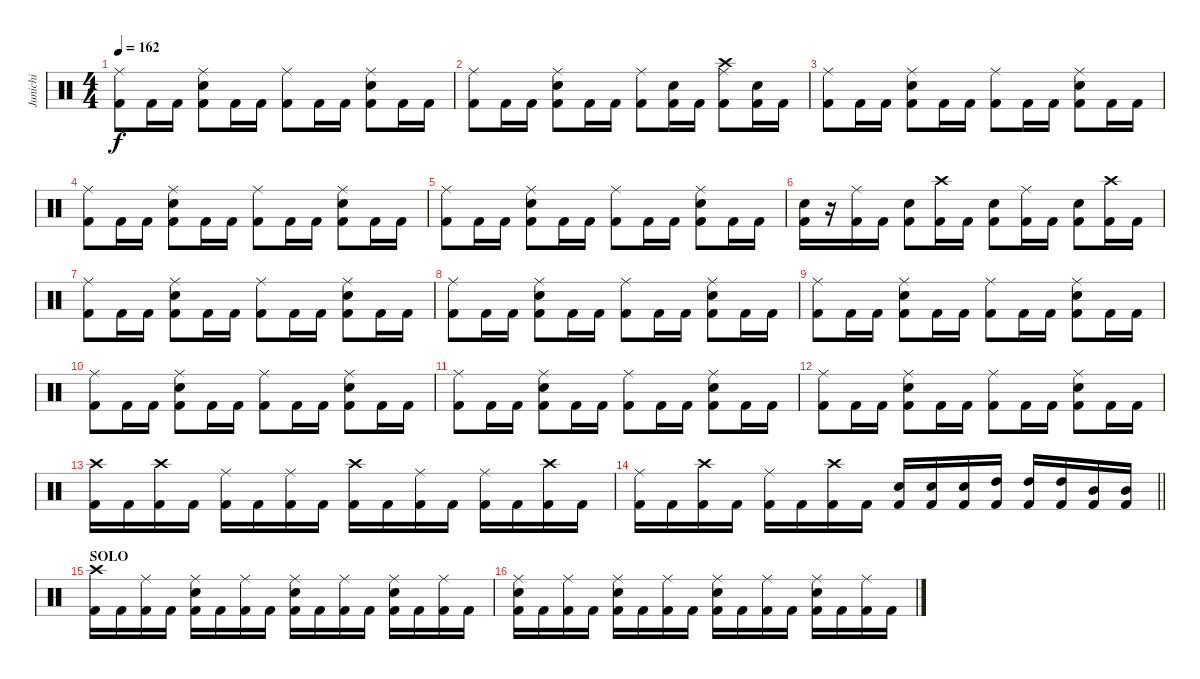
\track ("Junichi" "Junichi") {instrument percussion}
\staff {score}
\articulation defaults
\ts (4 4)
\tempo 162
\clef neutral
\ks c
("Ride (middle)" "Kick (hit) 2").8{dy f} "Kick (hit) 2".16 "Kick (hit) 2".16 ("Ride (middle)" "Electric Snare (hit)" "Kick (hit) 2").8 "Kick (hit) 2".16 "Kick (hit) 2".16 ("Ride (middle)" "Kick (hit) 2").8 "Kick (hit) 2".16 "Kick (hit) 2".16 ("Ride (middle)" "Electric Snare (hit)" "Kick (hit) 2").8 "Kick (hit) 2".16 "Kick (hit) 2".16 |
("Ride (middle)" "Kick (hit) 2").8 "Kick (hit) 2".16 "Kick (hit) 2".16 ("Ride (middle)" "Electric Snare (hit)" "Kick (hit) 2").8 "Kick (hit) 2".16 "Kick (hit) 2".16 ("Ride (middle)" "Kick (hit) 2").8 ("Electric Snare (hit)" "Kick (hit) 2").16 "Kick (hit) 2".16 ("Crash high (hit)" "Ride (middle)" "Kick (hit) 2").8 ("Electric Snare (hit)" "Kick (hit) 2").16 "Kick (hit) 2".16 |
("Ride (middle)" "Kick (hit) 2").8 "Kick (hit) 2".16 "Kick (hit) 2".16 ("Ride (middle)" "Electric Snare (hit)" "Kick (hit) 2").8 "Kick (hit) 2".16 "Kick (hit) 2".16 ("Ride (middle)" "Kick (hit) 2").8 "Kick (hit) 2".16 "Kick (hit) 2".16 ("Ride (middle)" "Electric Snare (hit)" "Kick (hit) 2").8 "Kick (hit) 2".16 "Kick (hit) 2".16 |
("Ride (middle)" "Kick (hit) 2").8 "Kick (hit) 2".16 "Kick (hit) 2".16 ("Ride (middle)" "Electric Snare (hit)" "Kick (hit) 2").8 "Kick (hit) 2".16 "Kick (hit) 2".16 ("Ride (middle)" "Kick (hit) 2").8 "Kick (hit) 2".16 "Kick (hit) 2".16 ("Ride (middle)" "Electric Snare (hit)" "Kick (hit) 2").8 "Kick (hit) 2".16 "Kick (hit) 2".16 |
("Ride (middle)" "Kick (hit) 2").8 "Kick (hit) 2".16 "Kick (hit) 2".16 ("Ride (middle)" "Electric Snare (hit)" "Kick (hit) 2").8 "Kick (hit) 2".16 "Kick (hit) 2".16 ("Ride (middle)" "Kick (hit) 2").8 "Kick (hit) 2".16 "Kick (hit) 2".16 ("Ride (middle)" "Electric Snare (hit)" "Kick (hit) 2").8 "Kick (hit) 2".16 "Kick (hit) 2".16 |
("Electric Snare (hit)" "Kick (hit) 2").16 r.16 ("Ride (middle)" "Kick (hit) 2").16 "Kick (hit) 2".16 ("Electric Snare (hit)" "Kick (hit) 2").8 ("Crash high (hit)" "Kick (hit) 2").16 "Kick (hit) 2".16 ("Electric Snare (hit)" "Kick (hit) 2").8 ("Ride (middle)" "Kick (hit) 2").16 "Kick (hit) 2".16 ("Electric Snare (hit)" "Kick (hit) 2").8 ("Crash high (hit)" "Kick (hit) 2").16 "Kick (hit) 2".16 |
("Ride (middle)" "Kick (hit) 2").8 "Kick (hit) 2".16 "Kick (hit) 2".16 ("Ride (middle)" "Electric Snare (hit)" "Kick (hit) 2").8 "Kick (hit) 2".16 "Kick (hit) 2".16 ("Ride (middle)" "Kick (hit) 2").8 "Kick (hit) 2".16 "Kick (hit) 2".16 ("Ride (middle)" "Electric Snare (hit)" "Kick (hit) 2").8 "Kick (hit) 2".16 "Kick (hit) 2".16 |
("Ride (middle)" "Kick (hit) 2").8 "Kick (hit) 2".16 "Kick (hit) 2".16 ("Ride (middle)" "Electric Snare (hit)" "Kick (hit) 2").8 "Kick (hit) 2".16 "Kick (hit) 2".16 ("Ride (middle)" "Kick (hit) 2").8 "Kick (hit) 2".16 "Kick (hit) 2".16 ("Ride (middle)" "Electric Snare (hit)" "Kick (hit) 2").8 "Kick (hit) 2".16 "Kick (hit) 2".16 |
("Ride (middle)" "Kick (hit) 2").8 "Kick (hit) 2".16 "Kick (hit) 2".16 ("Ride (middle)" "Electric Snare (hit)" "Kick (hit) 2").8 "Kick (hit) 2".16 "Kick (hit) 2".16 ("Ride (middle)" "Kick (hit) 2").8 "Kick (hit) 2".16 "Kick (hit) 2".16 ("Ride (middle)" "Electric Snare (hit)" "Kick (hit) 2").8 "Kick (hit) 2".16 "Kick (hit) 2".16 |
("Ride (middle)" "Kick (hit) 2").8 "Kick (hit) 2".16 "Kick (hit) 2".16 ("Ride (middle)" "Electric Snare (hit)" "Kick (hit) 2").8 "Kick (hit) 2".16 "Kick (hit) 2".16 ("Ride (middle)" "Kick (hit) 2").8 "Kick (hit) 2".16 "Kick (hit) 2".16 ("Ride (middle)" "Electric Snare (hit)" "Kick (hit) 2").8 "Kick (hit) 2".16 "Kick (hit) 2".16 |
("Ride (middle)" "Kick (hit) 2").8 "Kick (hit) 2".16 "Kick (hit) 2".16 ("Ride (middle)" "Electric Snare (hit)" "Kick (hit) 2").8 "Kick (hit) 2".16 "Kick (hit) 2".16 ("Ride (middle)" "Kick (hit) 2").8 "Kick (hit) 2".16 "Kick (hit) 2".16 ("Ride (middle)" "Electric Snare (hit)" "Kick (hit) 2").8 "Kick (hit) 2".16 "Kick (hit) 2".16 |
("Ride (middle)" "Kick (hit) 2").8 "Kick (hit) 2".16 "Kick (hit) 2".16 ("Ride (middle)" "Electric Snare (hit)" "Kick (hit) 2").8 "Kick (hit) 2".16 "Kick (hit) 2".16 ("Ride (middle)" "Kick (hit) 2").8 "Kick (hit) 2".16 "Kick (hit) 2".16 ("Ride (middle)" "Electric Snare (hit)" "Kick (hit) 2").8 "Kick (hit) 2".16 "Kick (hit) 2".16 |
("Crash high (hit)" "Kick (hit) 2").16 "Kick (hit) 2".16 ("Crash high (hit)" "Kick (hit) 2").16 "Kick (hit) 2".16 ("Ride (middle)" "Kick (hit) 2").16 "Kick (hit) 2".16 ("Ride (middle)" "Kick (hit) 2").16 "Kick (hit) 2".16 ("Crash high (hit)" "Kick (hit) 2").16 "Kick (hit) 2".16 ("Ride (middle)" "Kick (hit) 2").16 "Kick (hit) 2".16 ("Ride (middle)" "Kick (hit) 2").16 "Kick (hit) 2".16 ("Crash high (hit)" "Kick (hit) 2").16 "Kick (hit) 2".16 |
\barLineRight lightlight
("Ride (middle)" "Kick (hit) 2").16 "Kick (hit) 2".16 ("Crash high (hit)" "Kick (hit) 2").16 "Kick (hit) 2".16 ("Ride (middle)" "Kick (hit) 2").16 "Kick (hit) 2".16 ("Crash high (hit)" "Kick (hit) 2").16 "Kick (hit) 2".16 ("Electric Snare (hit)" "Kick (hit) 2").16 ("Electric Snare (hit)" "Kick (hit) 2").16 ("Electric Snare (hit)" "Kick (hit) 2").16 ("High Tom (hit)" "Kick (hit) 2").16 ("High Tom (hit)" "Kick (hit) 2").16 ("High Tom (hit)" "Kick (hit) 2").16 ("Mid Tom (hit)" "Kick (hit) 2").16 ("Mid Tom (hit)" "Kick (hit) 2").16 |
\section ("" "SOLO")
("Crash high (hit)" "Kick (hit) 2").16 "Kick (hit) 2".16 ("Ride (middle)" "Kick (hit) 2").16 "Kick (hit) 2".16 ("Ride (middle)" "Electric Snare (hit)" "Kick (hit) 2").16 "Kick (hit) 2".16 ("Ride (middle)" "Kick (hit) 2").16 "Kick (hit) 2".16 ("Ride (middle)" "Electric Snare (hit)" "Kick (hit) 2").16 "Kick (hit) 2".16 ("Ride (middle)" "Kick (hit) 2").16 "Kick (hit) 2".16 ("Ride (middle)" "Electric Snare (hit)" "Kick (hit) 2").16 "Kick (hit) 2".16 ("Ride (middle)" "Kick (hit) 2").16 "Kick (hit) 2".16 |
("Ride (middle)" "Electric Snare (hit)" "Kick (hit) 2").16 "Kick (hit) 2".16 ("Ride (middle)" "Kick (hit) 2").16 "Kick (hit) 2".16 ("Ride (middle)" "Electric Snare (hit)" "Kick (hit) 2").16 "Kick (hit) 2".16 ("Ride (middle)" "Kick (hit) 2").16 "Kick (hit) 2".16 ("Ride (middle)" "Electric Snare (hit)" "Kick (hit) 2").16 "Kick (hit) 2".16 ("Ride (middle)" "Kick (hit) 2").16 "Kick (hit) 2".16 ("Ride (middle)" "Electric Snare (hit)" "Kick (hit) 2").16 "Kick (hit) 2".16 ("Ride (middle)" "Kick (hit) 2").16 "Kick (hit) 2".16
